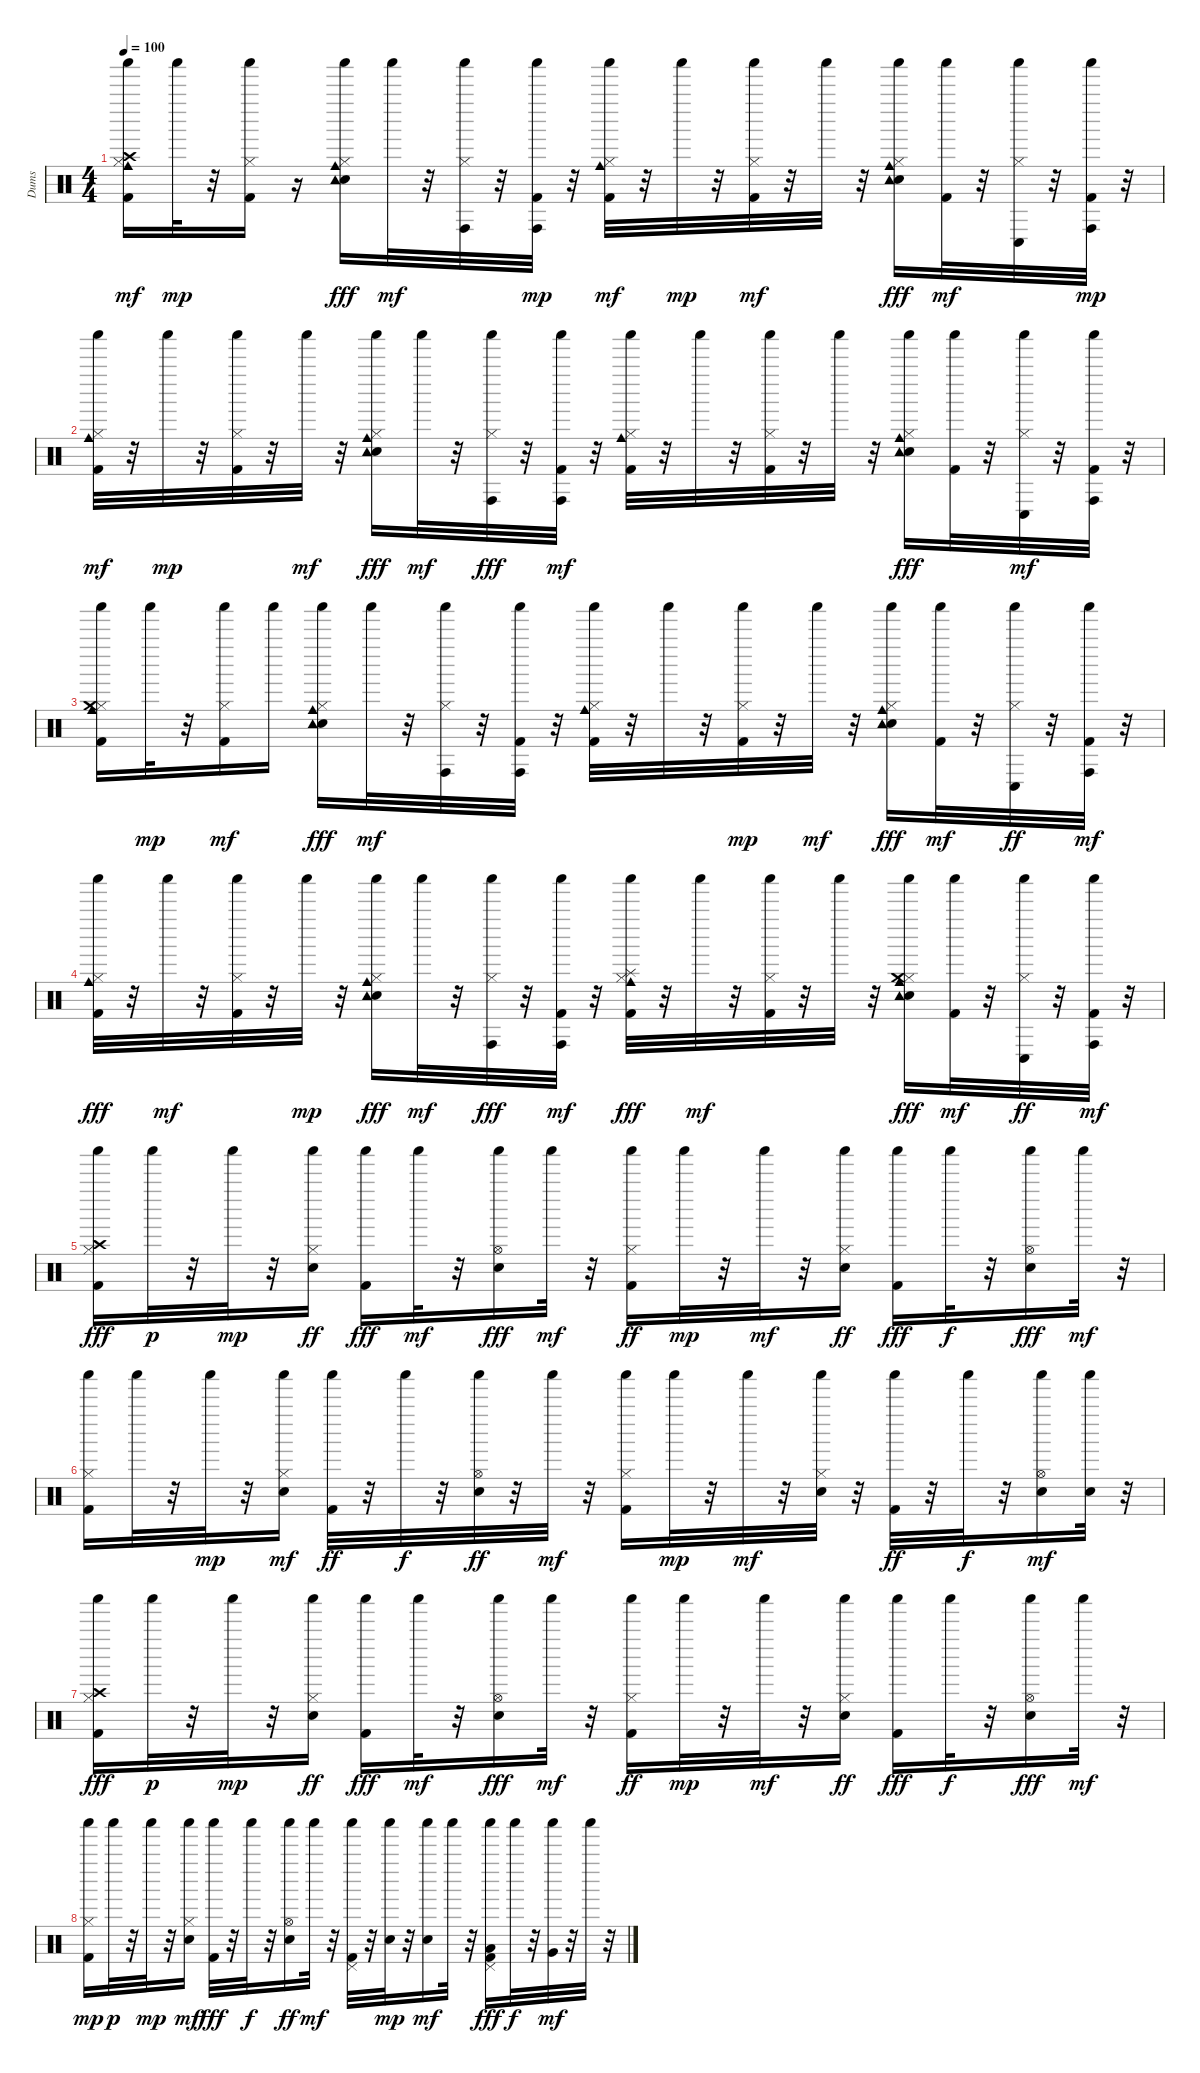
\track ("Dums" "Dums") {instrument percussion}
\staff {score}
\articulation defaults
\ts (4 4)
\tempo 100
\clef neutral
\ks c
("Kick (hit) 2" "Hi-Hat (closed)" "Cowbell medium (hit)" "Crash high (hit)" "Shaker (hit)").16{dy mf} "Shaker (hit)".32{dy mp} r.32 ("Kick (hit) 2" "Hi-Hat (closed)" "Shaker (hit)").16 r.16 ("Electric Snare (hit)" "Hi-Hat (closed)" "Cowbell medium (hit)" "Shaker (hit)" "Tambourine (hit)").16{dy fff} "Shaker (hit)".32{dy mf} r.32 ("Hi-Hat (closed)" "Conga high (hit)" "Shaker (hit)").32 r.32 ("Kick (hit) 2" "Conga high (hit)" "Shaker (hit)").32{dy mp} r.32 ("Kick (hit) 2" "Hi-Hat (closed)" "Cowbell medium (hit)" "Shaker (hit)").32{dy mf} r.32 "Shaker (hit)".32{dy mp} r.32 ("Kick (hit) 2" "Hi-Hat (closed)" "Shaker (hit)").32{dy mf} r.32 "Shaker (hit)".32 r.32 ("Electric Snare (hit)" "Hi-Hat (closed)" "Cowbell medium (hit)" "Shaker (hit)" "Tambourine (hit)").16{dy fff} ("Kick (hit) 2" "Shaker (hit)").32{dy mf} r.32 ("Hi-Hat (closed)" "Conga low (hit)" "Shaker (hit)").32 r.32 ("Kick (hit) 2" "Conga high (hit)" "Shaker (hit)").32{dy mp} r.32 |
("Kick (hit) 2" "Hi-Hat (closed)" "Cowbell medium (hit)" "Shaker (hit)").32{dy mf} r.32 "Shaker (hit)".32{dy mp} r.32 ("Kick (hit) 2" "Hi-Hat (closed)" "Shaker (hit)").32 r.32 "Shaker (hit)".32{dy mf} r.32 ("Electric Snare (hit)" "Hi-Hat (closed)" "Cowbell medium (hit)" "Shaker (hit)" "Tambourine (hit)").16{dy fff} "Shaker (hit)".32{dy mf} r.32 ("Hi-Hat (closed)" "Conga high (hit)" "Shaker (hit)").32{dy fff} r.32 ("Kick (hit) 2" "Conga high (hit)" "Shaker (hit)").32{dy mf} r.32 ("Kick (hit) 2" "Hi-Hat (closed)" "Cowbell medium (hit)" "Shaker (hit)").32 r.32 "Shaker (hit)".32 r.32 ("Kick (hit) 2" "Hi-Hat (closed)" "Shaker (hit)").32 r.32 "Shaker (hit)".32 r.32 ("Electric Snare (hit)" "Hi-Hat (closed)" "Cowbell medium (hit)" "Shaker (hit)" "Tambourine (hit)").16{dy fff} ("Kick (hit) 2" "Shaker (hit)").32 r.32 ("Hi-Hat (closed)" "Conga low (hit)" "Shaker (hit)").32{dy mf} r.32 ("Kick (hit) 2" "Conga high (hit)" "Shaker (hit)").32 r.32 |
("Kick (hit) 2" "Hi-Hat (closed)" "Cowbell medium (hit)" "Crash medium (hit)" "Shaker (hit)").16 "Shaker (hit)".32{dy mp} r.32 ("Kick (hit) 2" "Hi-Hat (closed)" "Shaker (hit)").16{dy mf} "Shaker (hit)".16 ("Electric Snare (hit)" "Hi-Hat (closed)" "Cowbell medium (hit)" "Shaker (hit)" "Tambourine (hit)").16{dy fff} "Shaker (hit)".32{dy mf} r.32 ("Hi-Hat (closed)" "Conga high (hit)" "Shaker (hit)").32 r.32 ("Kick (hit) 2" "Conga high (hit)" "Shaker (hit)").32 r.32 ("Kick (hit) 2" "Hi-Hat (closed)" "Cowbell medium (hit)" "Shaker (hit)").32 r.32 "Shaker (hit)".32 r.32 ("Kick (hit) 2" "Hi-Hat (closed)" "Shaker (hit)").32{dy mp} r.32 "Shaker (hit)".32{dy mf} r.32 ("Electric Snare (hit)" "Hi-Hat (closed)" "Cowbell medium (hit)" "Shaker (hit)" "Tambourine (hit)").16{dy fff} ("Kick (hit) 2" "Shaker (hit)").32{dy mf} r.32 ("Hi-Hat (closed)" "Conga low (hit)" "Shaker (hit)").32{dy ff} r.32 ("Kick (hit) 2" "Conga high (hit)" "Shaker (hit)").32{dy mf} r.32 |
("Kick (hit) 2" "Hi-Hat (closed)" "Cowbell medium (hit)" "Shaker (hit)").32{dy fff} r.32 "Shaker (hit)".32{dy mf} r.32 ("Kick (hit) 2" "Hi-Hat (closed)" "Shaker (hit)").32 r.32 "Shaker (hit)".32{dy mp} r.32 ("Electric Snare (hit)" "Hi-Hat (closed)" "Cowbell medium (hit)" "Shaker (hit)" "Tambourine (hit)").16{dy fff} "Shaker (hit)".32{dy mf} r.32 ("Hi-Hat (closed)" "Conga high (hit)" "Shaker (hit)").32{dy fff} r.32 ("Kick (hit) 2" "Conga high (hit)" "Shaker (hit)").32{dy mf} r.32 ("Kick (hit) 2" "Hi-Hat (closed)" "Cowbell medium (hit)" "Splash (hit)" "Shaker (hit)").32{dy fff} r.32 "Shaker (hit)".32{dy mf} r.32 ("Kick (hit) 2" "Hi-Hat (closed)" "Shaker (hit)").32 r.32 "Shaker (hit)".32 r.32 ("Electric Snare (hit)" "Hi-Hat (closed)" "Cowbell medium (hit)" "Crash medium (hit)" "Shaker (hit)" "Tambourine (hit)").16{dy fff} ("Kick (hit) 2" "Shaker (hit)").32{dy mf} r.32 ("Hi-Hat (closed)" "Conga low (hit)" "Shaker (hit)").32{dy ff} r.32 ("Kick (hit) 2" "Conga high (hit)" "Shaker (hit)").32{dy mf} r.32 |
("Kick (hit) 2" "Shaker (hit)" "Hi-Hat (closed)" "Crash high (hit)").16{dy fff} "Shaker (hit)".32{dy p} r.32 "Shaker (hit)".32{dy mp} r.32 ("Electric Snare (hit)" "Shaker (hit)" "Hi-Hat (closed)").16{dy ff} ("Shaker (hit)" "Kick (hit) 2").16{dy fff} "Shaker (hit)".32{dy mf} r.32 ("Electric Snare (hit)" "Shaker (hit)" "Hi-Hat (open)").16{dy fff} "Shaker (hit)".32{dy mf} r.32 ("Kick (hit) 2" "Shaker (hit)" "Hi-Hat (closed)").16{dy ff} "Shaker (hit)".32{dy mp} r.32 "Shaker (hit)".32{dy mf} r.32 ("Electric Snare (hit)" "Shaker (hit)" "Hi-Hat (closed)").16{dy ff} ("Shaker (hit)" "Kick (hit) 2").16{dy fff} "Shaker (hit)".32{dy f} r.32 ("Electric Snare (hit)" "Shaker (hit)" "Hi-Hat (open)").16{dy fff} "Shaker (hit)".32{dy mf} r.32 |
("Kick (hit) 2" "Hi-Hat (closed)" "Shaker (hit)").16 "Shaker (hit)".32 r.32 "Shaker (hit)".32{dy mp} r.32 ("Electric Snare (hit)" "Hi-Hat (closed)" "Shaker (hit)").16{dy mf} ("Kick (hit) 2" "Shaker (hit)").32{dy ff} r.32 "Shaker (hit)".32{dy f} r.32 ("Electric Snare (hit)" "Hi-Hat (open)" "Shaker (hit)").32{dy ff} r.32 "Shaker (hit)".32{dy mf} r.32 ("Kick (hit) 2" "Hi-Hat (closed)" "Shaker (hit)").16 "Shaker (hit)".32{dy mp} r.32 "Shaker (hit)".32{dy mf} r.32 ("Electric Snare (hit)" "Hi-Hat (closed)" "Shaker (hit)").32 r.32 ("Kick (hit) 2" "Shaker (hit)").32{dy ff} r.32 "Shaker (hit)".32{dy f} r.32 ("Electric Snare (hit)" "Hi-Hat (open)" "Shaker (hit)").16{dy mf} ("Electric Snare (hit)" "Shaker (hit)").32 r.32 |
("Kick (hit) 2" "Shaker (hit)" "Hi-Hat (closed)" "Crash high (hit)").16{dy fff} "Shaker (hit)".32{dy p} r.32 "Shaker (hit)".32{dy mp} r.32 ("Electric Snare (hit)" "Shaker (hit)" "Hi-Hat (closed)").16{dy ff} ("Shaker (hit)" "Kick (hit) 2").16{dy fff} "Shaker (hit)".32{dy mf} r.32 ("Electric Snare (hit)" "Shaker (hit)" "Hi-Hat (open)").16{dy fff} "Shaker (hit)".32{dy mf} r.32 ("Kick (hit) 2" "Shaker (hit)" "Hi-Hat (closed)").16{dy ff} "Shaker (hit)".32{dy mp} r.32 "Shaker (hit)".32{dy mf} r.32 ("Electric Snare (hit)" "Shaker (hit)" "Hi-Hat (closed)").16{dy ff} ("Shaker (hit)" "Kick (hit) 2").16{dy fff} "Shaker (hit)".32{dy f} r.32 ("Electric Snare (hit)" "Shaker (hit)" "Hi-Hat (open)").16{dy fff} "Shaker (hit)".32{dy mf} r.32 |
("Kick (hit) 2" "Hi-Hat (closed)" "Shaker (hit)").16{dy mp} "Shaker (hit)".32{dy p} r.32 "Shaker (hit)".32{dy mp} r.32 ("Electric Snare (hit)" "Hi-Hat (closed)" "Shaker (hit)").16{dy mf} ("Kick (hit) 2" "Shaker (hit)").32{dy fff} r.32 "Shaker (hit)".32{dy f} r.32 ("Electric Snare (hit)" "Hi-Hat (open)" "Shaker (hit)").16{dy ff} "Shaker (hit)".32{dy mf} r.32 ("Kick (hit) 2" "Pedal Hi-Hat (hit)" "Shaker (hit)").32 r.32 ("Electric Snare (hit)" "Shaker (hit)").32{dy mp} r.32 ("Electric Snare (hit)" "Shaker (hit)").16{dy mf} "Shaker (hit)".32 r.32 ("Kick (hit) 2" "Low Tom (hit)" "Pedal Hi-Hat (hit)" "Shaker (hit)").16{dy fff} "Shaker (hit)".32{dy f} r.32 ("Very Low Tom (hit)" "Shaker (hit)").32{dy mf} r.32 "Shaker (hit)".32 r.32
